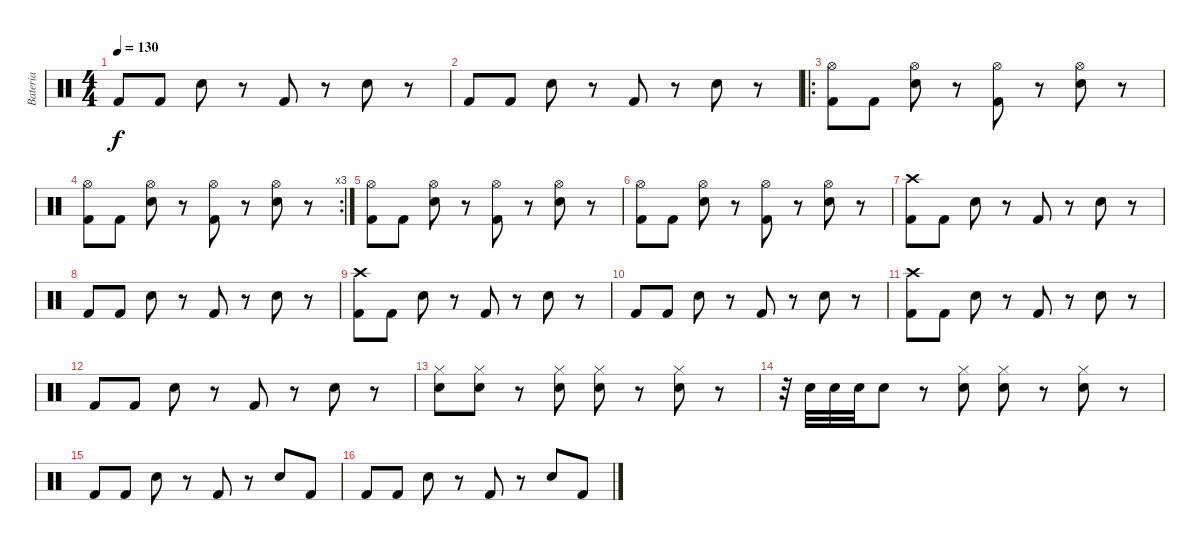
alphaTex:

\track ("Bateria" "Bateria") {instrument percussion}
\staff {score}
\articulation defaults
\ts (4 4)
\tempo 130
\clef neutral
\ks c "Kick (hit) 2".8{dy f} "Kick (hit) 2".8 "Snare (hit) 2".8
r.8 "Kick (hit) 2".8 r.8 "Snare (hit) 2".8 r.8 |
"Kick (hit) 2".8 "Kick (hit) 2".8 "Snare (hit) 2".8 r.8 "Kick (hit) 2".8 r.8 "Snare (hit) 2".8 r.8 |
\ro
("Kick (hit) 2" "Hi-Hat (open)").8 "Kick (hit) 2".8 ("Snare (hit) 2" "Hi-Hat (open)").8 r.8 ("Kick (hit) 2" "Hi-Hat (open)").8 r.8 ("Snare (hit) 2" "Hi-Hat (open)").8 r.8 |
\rc 3
("Kick (hit) 2" "Hi-Hat (open)").8 "Kick (hit) 2".8 ("Snare (hit) 2" "Hi-Hat (open)").8 r.8 ("Kick (hit) 2" "Hi-Hat (open)").8 r.8 ("Snare (hit) 2" "Hi-Hat (open)").8 r.8 |
("Kick (hit) 2" "Hi-Hat (open)").8 "Kick (hit) 2".8 ("Snare (hit) 2" "Hi-Hat (open)").8 r.8 ("Kick (hit) 2" "Hi-Hat (open)").8 r.8 ("Snare (hit) 2" "Hi-Hat (open)").8 r.8 |
("Kick (hit) 2" "Hi-Hat (open)").8 "Kick (hit) 2".8 ("Snare (hit) 2" "Hi-Hat (open)").8 r.8 ("Kick (hit) 2" "Hi-Hat (open)").8 r.8 ("Snare (hit) 2" "Hi-Hat (open)").8 r.8 |
("Kick (hit) 2" "Crash high (hit)").8 "Kick (hit) 2".8 "Snare (hit) 2".8 r.8 "Kick (hit) 2".8 r.8 "Snare (hit) 2".8 r.8 |
"Kick (hit) 2".8 "Kick (hit) 2".8 "Snare (hit) 2".8 r.8 "Kick (hit) 2".8 r.8 "Snare (hit) 2".8 r.8 |
("Kick (hit) 2" "Crash high (hit)").8 "Kick (hit) 2".8 "Snare (hit) 2".8 r.8 "Kick (hit) 2".8 r.8 "Snare (hit) 2".8 r.8 |
"Kick (hit) 2".8 "Kick (hit) 2".8 "Snare (hit) 2".8 r.8 "Kick (hit) 2".8 r.8 "Snare (hit) 2".8 r.8 |
("Kick (hit) 2" "Crash high (hit)").8 "Kick (hit) 2".8 "Snare (hit) 2".8 r.8 "Kick (hit) 2".8 r.8 "Snare (hit) 2".8 r.8 |
"Kick (hit) 2".8 "Kick (hit) 2".8 "Snare (hit) 2".8 r.8 "Kick (hit) 2".8 r.8 "Snare (hit) 2".8 r.8 |
("Snare (hit) 2" "Hi-Hat (closed)").8 ("Snare (hit) 2" "Hi-Hat (closed)").8 r.8 ("Snare (hit) 2" "Hi-Hat (closed)").8 ("Snare (hit) 2" "Hi-Hat (closed)").8 r.8 ("Snare (hit) 2" "Hi-Hat (closed)").8 r.8 |
r.32 "Snare (hit) 2".32 "Snare (hit) 2".32 "Snare (hit) 2".32 "Snare (hit) 2".8 r.8 ("Snare (hit) 2" "Hi-Hat (closed)").8 ("Snare (hit) 2" "Hi-Hat (closed)").8 r.8 ("Snare (hit) 2" "Hi-Hat (closed)").8 r.8 |
"Kick (hit) 2".8 "Kick (hit) 2".8 "Snare (hit) 2".8 r.8 "Kick (hit) 2".8 r.8 "Snare (hit) 2".8 "Kick (hit) 2".8 |
"Kick (hit) 2".8 "Kick (hit) 2".8 "Snare (hit) 2".8 r.8 "Kick (hit) 2".8 r.8 "Snare (hit) 2".8 "Kick (hit) 2".8
